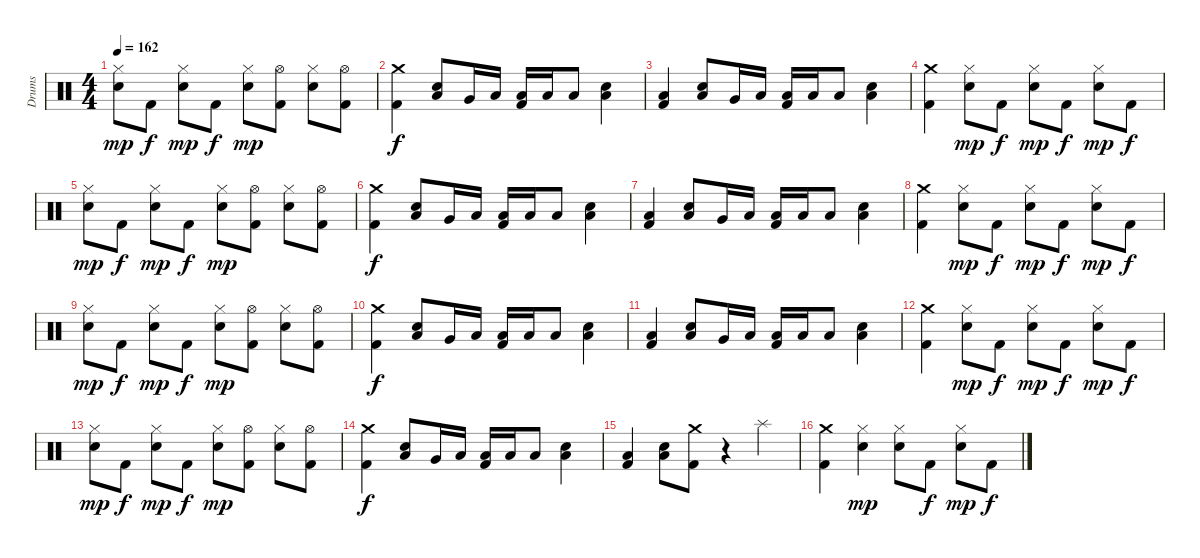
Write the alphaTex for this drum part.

\track ("Drums" "Drums") {instrument percussion}
\staff {score}
\articulation defaults
\ts (4 4)
\tempo 162
\clef neutral
\ks c
("Hi-Hat (closed)" "Snare (hit) 2").8{dy mp} "Kick (hit) 2".8{dy f} ("Hi-Hat (closed)" "Snare (hit) 2").8{dy mp} "Kick (hit) 2".8{dy f} ("Hi-Hat (closed)" "Snare (hit) 2").8{dy mp} ("Hi-Hat (open)" "Kick (hit) 2").8 ("Hi-Hat (closed)" "Snare (hit) 2").8 ("Hi-Hat (open)" "Kick (hit) 2").8 |
("Crash medium (hit)" "Kick (hit) 2").4{dy f} ("Low Floor Tom (hit)" "Snare (hit) 2").8 "Very Low Tom (hit)".16 "Low Floor Tom (hit)".16 ("Low Floor Tom (hit)" "Kick (hit) 2").16 "Low Floor Tom (hit)".16 "Low Floor Tom (hit)".8 ("Low Floor Tom (hit)" "Snare (hit) 2").4 |
("Low Floor Tom (hit)" "Kick (hit) 2").4 ("Low Floor Tom (hit)" "Snare (hit) 2").8 "Very Low Tom (hit)".16 "Low Floor Tom (hit)".16 ("Low Floor Tom (hit)" "Kick (hit) 2").16 "Low Floor Tom (hit)".16 "Low Floor Tom (hit)".8 ("Low Floor Tom (hit)" "Snare (hit) 2").4 |
("Crash medium (hit)" "Kick (hit) 2").4 ("Hi-Hat (closed)" "Snare (hit) 2").8{dy mp} "Kick (hit) 2".8{dy f} ("Hi-Hat (closed)" "Snare (hit) 2").8{dy mp} "Kick (hit) 2".8{dy f} ("Hi-Hat (closed)" "Snare (hit) 2").8{dy mp} "Kick (hit) 2".8{dy f} |
("Hi-Hat (closed)" "Snare (hit) 2").8{dy mp} "Kick (hit) 2".8{dy f} ("Hi-Hat (closed)" "Snare (hit) 2").8{dy mp} "Kick (hit) 2".8{dy f} ("Hi-Hat (closed)" "Snare (hit) 2").8{dy mp} ("Hi-Hat (open)" "Kick (hit) 2").8 ("Hi-Hat (closed)" "Snare (hit) 2").8 ("Hi-Hat (open)" "Kick (hit) 2").8 |
("Crash medium (hit)" "Kick (hit) 2").4{dy f} ("Low Floor Tom (hit)" "Snare (hit) 2").8 "Very Low Tom (hit)".16 "Low Floor Tom (hit)".16 ("Low Floor Tom (hit)" "Kick (hit) 2").16 "Low Floor Tom (hit)".16 "Low Floor Tom (hit)".8 ("Low Floor Tom (hit)" "Snare (hit) 2").4 |
("Low Floor Tom (hit)" "Kick (hit) 2").4 ("Low Floor Tom (hit)" "Snare (hit) 2").8 "Very Low Tom (hit)".16 "Low Floor Tom (hit)".16 ("Low Floor Tom (hit)" "Kick (hit) 2").16 "Low Floor Tom (hit)".16 "Low Floor Tom (hit)".8 ("Low Floor Tom (hit)" "Snare (hit) 2").4 |
("Crash medium (hit)" "Kick (hit) 2").4 ("Hi-Hat (closed)" "Snare (hit) 2").8{dy mp} "Kick (hit) 2".8{dy f} ("Hi-Hat (closed)" "Snare (hit) 2").8{dy mp} "Kick (hit) 2".8{dy f} ("Hi-Hat (closed)" "Snare (hit) 2").8{dy mp} "Kick (hit) 2".8{dy f} |
("Hi-Hat (closed)" "Snare (hit) 2").8{dy mp} "Kick (hit) 2".8{dy f} ("Hi-Hat (closed)" "Snare (hit) 2").8{dy mp} "Kick (hit) 2".8{dy f} ("Hi-Hat (closed)" "Snare (hit) 2").8{dy mp} ("Hi-Hat (open)" "Kick (hit) 2").8 ("Hi-Hat (closed)" "Snare (hit) 2").8 ("Hi-Hat (open)" "Kick (hit) 2").8 |
("Crash medium (hit)" "Kick (hit) 2").4{dy f} ("Low Floor Tom (hit)" "Snare (hit) 2").8 "Very Low Tom (hit)".16 "Low Floor Tom (hit)".16 ("Low Floor Tom (hit)" "Kick (hit) 2").16 "Low Floor Tom (hit)".16 "Low Floor Tom (hit)".8 ("Low Floor Tom (hit)" "Snare (hit) 2").4 |
("Low Floor Tom (hit)" "Kick (hit) 2").4 ("Low Floor Tom (hit)" "Snare (hit) 2").8 "Very Low Tom (hit)".16 "Low Floor Tom (hit)".16 ("Low Floor Tom (hit)" "Kick (hit) 2").16 "Low Floor Tom (hit)".16 "Low Floor Tom (hit)".8 ("Low Floor Tom (hit)" "Snare (hit) 2").4 |
("Crash medium (hit)" "Kick (hit) 2").4 ("Hi-Hat (closed)" "Snare (hit) 2").8{dy mp} "Kick (hit) 2".8{dy f} ("Hi-Hat (closed)" "Snare (hit) 2").8{dy mp} "Kick (hit) 2".8{dy f} ("Hi-Hat (closed)" "Snare (hit) 2").8{dy mp} "Kick (hit) 2".8{dy f} |
("Hi-Hat (closed)" "Snare (hit) 2").8{dy mp} "Kick (hit) 2".8{dy f} ("Hi-Hat (closed)" "Snare (hit) 2").8{dy mp} "Kick (hit) 2".8{dy f} ("Hi-Hat (closed)" "Snare (hit) 2").8{dy mp} ("Hi-Hat (open)" "Kick (hit) 2").8 ("Hi-Hat (closed)" "Snare (hit) 2").8 ("Hi-Hat (open)" "Kick (hit) 2").8 |
("Crash medium (hit)" "Kick (hit) 2").4{dy f} ("Low Floor Tom (hit)" "Snare (hit) 2").8 "Very Low Tom (hit)".16 "Low Floor Tom (hit)".16 ("Low Floor Tom (hit)" "Kick (hit) 2").16 "Low Floor Tom (hit)".16 "Low Floor Tom (hit)".8 ("Low Floor Tom (hit)" "Snare (hit) 2").4 |
("Low Floor Tom (hit)" "Kick (hit) 2").4 ("Low Floor Tom (hit)" "Snare (hit) 2").8 ("Crash medium (hit)" "Kick (hit) 2").8 r.4 "Splash (hit)".4 |
("Crash medium (hit)" "Kick (hit) 2").4 ("Hi-Hat (closed)" "Snare (hit) 2").4{dy mp} ("Hi-Hat (closed)" "Snare (hit) 2").8 "Kick (hit) 2".8{dy f} ("Hi-Hat (closed)" "Snare (hit) 2").8{dy mp} "Kick (hit) 2".8{dy f}
